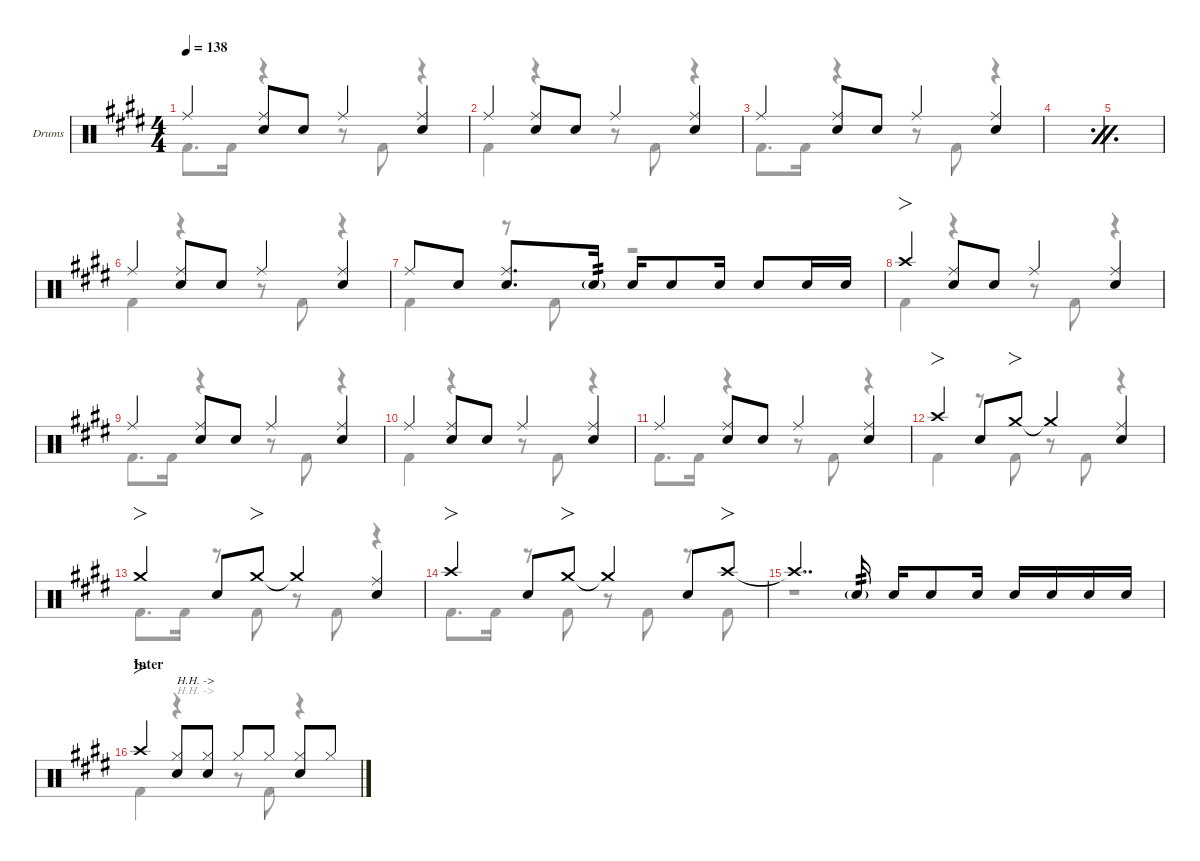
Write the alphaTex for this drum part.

\defaultSystemsLayout 4
\hideDynamics
\bracketExtendMode nobrackets
\firstSystemTrackNameOrientation horizontal
\track ("Drums" "Drums") {defaultSystemsLayout 4 instrument percussion}
\staff {score}
\articulation defaults
\voice
\ts (4 4)
\tempo 138
\clef neutral
\scale
0.244461
\ks c#minor "Ride (middle)"{acc forcenatural}.4{dy f beam Up}
("Ride (middle)"{acc forcenatural} "Snare (hit) 2"{acc forcenatural}).8{beam Up} "Snare (hit) 2"{acc forcenatural}.8{beam Up} "Ride (middle)"{acc forcenatural}.4{beam Up} ("Ride (middle)"{acc forcenatural} "Snare (hit) 2"{acc forcenatural}).4{beam Up} |
\scale
0.244461 "Ride (middle)"{acc forcenatural}.4{beam Up} ("Ride (middle)"{acc forcenatural} "Snare (hit) 2"{acc forcenatural}).8{beam Up} "Snare (hit) 2"{acc forcenatural}.8{beam Up} "Ride (middle)"{acc forcenatural}.4{beam Up} ("Ride (middle)"{acc forcenatural} "Snare (hit) 2"{acc forcenatural}).4{beam Up} |
\scale
0.244461 "Ride (middle)"{acc forcenatural}.4{beam Up} ("Ride (middle)"{acc forcenatural} "Snare (hit) 2"{acc forcenatural}).8{beam Up} "Snare (hit) 2"{acc forcenatural}.8{beam Up} "Ride (middle)"{acc forcenatural}.4{beam Up} ("Ride (middle)"{acc forcenatural} "Snare (hit) 2"{acc forcenatural}).4{beam Up} |
\simile firstofdouble
\scale
0.266618 |
\simile secondofdouble
\scale
0.244461 |
\simile none
\scale
0.244461 "Ride (middle)"{acc forcenatural}.4{beam Up} ("Ride (middle)"{acc forcenatural} "Snare (hit) 2"{acc forcenatural}).8{beam Up} "Snare (hit) 2"{acc forcenatural}.8{beam Up} "Ride (middle)"{acc forcenatural}.4{beam Up} ("Ride (middle)"{acc forcenatural} "Snare (hit) 2"{acc forcenatural}).4{beam Up} |
\scale
0.244461 "Ride (middle)"{acc forcenatural}.8{beam Up} "Snare (hit) 2"{acc forcenatural}.8{beam Up beam split} ("Snare (hit) 2"{acc forcenatural} "Ride (middle)"{acc forcenatural}).8{d beam Up} "Snare (hit) 2"{g acc forcenatural}.16{tp 2 dy mp beam Up} "Snare (hit) 2"{acc forcenatural}.16{dy f beam Up} "Snare (hit) 2"{acc forcenatural}.8{beam Up} "Snare (hit) 2"{acc forcenatural}.16{beam Up beam split} "Snare (hit) 2"{acc forcenatural}.8{beam Up} "Snare (hit) 2"{acc forcenatural}.16{dy mf beam Up} "Snare (hit) 2"{acc forcenatural}.16{beam Up} |
\scale
0.266618 "Crash high (hit)"{acc forcenatural}.4{fo dy f beam Up} ("Ride (middle)"{acc forcenatural} "Snare (hit) 2"{acc forcenatural}).8{beam Up} "Snare (hit) 2"{acc forcenatural}.8{beam Up} "Ride (middle)"{acc forcenatural}.4{beam Up} ("Ride (middle)"{acc forcenatural} "Snare (hit) 2"{acc forcenatural}).4{beam Up} |
\scale
0.244461 "Ride (middle)"{acc forcenatural}.4{beam Up} ("Ride (middle)"{acc forcenatural} "Snare (hit) 2"{acc forcenatural}).8{beam Up} "Snare (hit) 2"{acc forcenatural}.8{beam Up} "Ride (middle)"{acc forcenatural}.4{beam Up} ("Ride (middle)"{acc forcenatural} "Snare (hit) 2"{acc forcenatural}).4{beam Up} |
\scale
0.244461 "Ride (middle)"{acc forcenatural}.4{beam Up} ("Ride (middle)"{acc forcenatural} "Snare (hit) 2"{acc forcenatural}).8{beam Up} "Snare (hit) 2"{acc forcenatural}.8{beam Up} "Ride (middle)"{acc forcenatural}.4{beam Up} ("Ride (middle)"{acc forcenatural} "Snare (hit) 2"{acc forcenatural}).4{beam Up} |
\scale
0.244461 "Ride (middle)"{acc forcenatural}.4{beam Up} ("Ride (middle)"{acc forcenatural} "Snare (hit) 2"{acc forcenatural}).8{beam Up} "Snare (hit) 2"{acc forcenatural}.8{beam Up} "Ride (middle)"{acc forcenatural}.4{beam Up} ("Ride (middle)"{acc forcenatural} "Snare (hit) 2"{acc forcenatural}).4{beam Up} |
\scale
0.266618 "Crash high (hit)"{acc forcenatural}.4{fo beam Up} "Snare (hit) 2"{acc forcenatural}.8{beam Up} "Crash medium (hit)"{acc forcenatural}.8{fo beam Up} "Crash medium (hit)"{t acc forcenatural}.4{beam Up} ("Ride (middle)"{acc forcenatural} "Snare (hit) 2"{acc forcenatural}).4{beam Up} |
\scale
0.244461 "Crash medium (hit)"{acc forcenatural}.4{fo beam Up} "Snare (hit) 2"{acc forcenatural}.8{beam Up} "Crash medium (hit)"{acc forcenatural}.8{fo beam Up} "Crash medium (hit)"{t acc forcenatural}.4{beam Up} ("Ride (middle)"{acc forcenatural} "Snare (hit) 2"{acc forcenatural}).4{beam Up} |
\scale
0.244461 "Crash high (hit)"{acc forcenatural}.4{fo beam Up} "Snare (hit) 2"{acc forcenatural}.8{beam Up} "Crash medium (hit)"{acc forcenatural}.8{fo beam Up} "Crash medium (hit)"{t acc forcenatural}.4{beam Up} "Snare (hit) 2"{acc forcenatural}.8{beam Up} "Crash high (hit)"{acc forcenatural}.8{fo beam Up} |
\scale
0.244461 "Crash high (hit)"{t acc forcenatural}.4{dd beam Up} "Snare (hit) 2"{g acc forcenatural}.16{tp 2 beam Up} "Snare (hit) 2"{acc forcenatural}.16{beam Up} "Snare (hit) 2"{acc forcenatural}.8{beam Up} "Snare (hit) 2"{acc forcenatural}.16{beam Up beam split} "Snare (hit) 2"{acc forcenatural}.16{beam Up} "Snare (hit) 2"{acc forcenatural}.16{dy mf beam Up} "Snare (hit) 2"{acc forcenatural}.16{dy f beam Up} "Snare (hit) 2"{acc forcenatural}.16{dy mf beam Up} |
\section ("" "Inter")
\scale
0.266618 "Crash high (hit)"{acc forcenatural}.4{fo dy f beam Up} ("Hi-Hat (closed)"{acc forcenatural} "Snare (hit) 2"{acc forcenatural}).8{txt "H.H. ->" beam Up} ("Hi-Hat (closed)"{acc forcenatural} "Snare (hit) 2"{acc forcenatural}).8{beam Up} "Hi-Hat (closed)"{acc forcenatural}.8{beam Up} "Hi-Hat (closed)"{acc forcenatural}.8{dy mp beam Up} ("Hi-Hat (closed)"{acc forcenatural} "Snare (hit) 2"{acc forcenatural}).8{dy f beam Up} "Hi-Hat (closed)"{acc forcenatural}.8{dy mp beam Up}
\voice
\clef neutral
\ottava regular
\simile none
\scale
0.244461
\ks c#minor "Kick (hit) 2"{acc forcenatural}.8{d dy f beam Down} "Kick (hit) 2"{acc forcenatural}.16{beam Down}
r.4{beam Down} r.8{beam Down} "Kick (hit) 2"{acc forcenatural}.8{beam Down} r.4{beam Down} |
\scale
0.244461 "Kick (hit) 2"{acc forcenatural}.4{beam Down} r.4{beam Down} r.8{beam Down} "Kick (hit) 2"{acc forcenatural}.8{beam Down} r.4{beam Down} |
\scale
0.244461 "Kick (hit) 2"{acc forcenatural}.8{d beam Down} "Kick (hit) 2"{acc forcenatural}.16{beam Down} r.4{beam Down} r.8{beam Down} "Kick (hit) 2"{acc forcenatural}.8{beam Down} r.4{beam Down} |
\simile firstofdouble
\scale
0.266618 |
\simile secondofdouble
\scale
0.244461 |
\simile none
\scale
0.244461 "Kick (hit) 2"{acc forcenatural}.4{beam Down} r.4{beam Down} r.8{beam Down} "Kick (hit) 2"{acc forcenatural}.8{beam Down} r.4{beam Down} |
\scale
0.244461 "Kick (hit) 2"{acc forcenatural}.4{beam Down} r.8{beam Down} "Kick (hit) 2"{acc forcenatural}.8{beam Down} r.2{beam Down} |
\scale
0.266618 "Kick (hit) 2"{acc forcenatural}.4{beam Down} r.4{beam Down} r.8{beam Down} "Kick (hit) 2"{acc forcenatural}.8{beam Down} r.4{beam Down} |
\scale
0.244461 "Kick (hit) 2"{acc forcenatural}.8{d beam Down} "Kick (hit) 2"{acc forcenatural}.16{beam Down} r.4{beam Down} r.8{beam Down} "Kick (hit) 2"{acc forcenatural}.8{beam Down} r.4{beam Down} |
\scale
0.244461 "Kick (hit) 2"{acc forcenatural}.4{beam Down} r.4{beam Down} r.8{beam Down} "Kick (hit) 2"{acc forcenatural}.8{beam Down} r.4{beam Down} |
\scale
0.244461 "Kick (hit) 2"{acc forcenatural}.8{d beam Down} "Kick (hit) 2"{acc forcenatural}.16{beam Down} r.4{beam Down} r.8{beam Down} "Kick (hit) 2"{acc forcenatural}.8{beam Down} r.4{beam Down} |
\scale
0.266618 "Kick (hit) 2"{acc forcenatural}.4{beam Down} r.8{beam Down} "Kick (hit) 2"{acc forcenatural}.8{beam Down} r.8{beam Down} "Kick (hit) 2"{acc forcenatural}.8{beam Down} r.4{beam Down} |
\scale
0.244461 "Kick (hit) 2"{acc forcenatural}.8{d beam Down} "Kick (hit) 2"{acc forcenatural}.16{beam Down beam split} r.8{beam Down beam split} "Kick (hit) 2"{acc forcenatural}.8{beam Down} r.8{beam Down} "Kick (hit) 2"{acc forcenatural}.8{beam Down} r.4{beam Down} |
\scale
0.244461 "Kick (hit) 2"{acc forcenatural}.8{d beam Down} "Kick (hit) 2"{acc forcenatural}.16{beam Down beam split} r.8{beam Down beam split} "Kick (hit) 2"{acc forcenatural}.8{beam Down} r.8{beam Down} "Kick (hit) 2"{acc forcenatural}.8{beam Down} r.8{beam Down} "Kick (hit) 2"{acc forcenatural}.8{beam Down} |
\scale
0.244461 r.1{beam Down} |
\scale
0.266618 "Kick (hit) 2"{acc forcenatural}.4{beam Down} r.4{txt "H.H. ->" beam Down} r.8{beam Down} "Kick (hit) 2"{acc forcenatural}.8{beam Down} r.4{beam Down}
